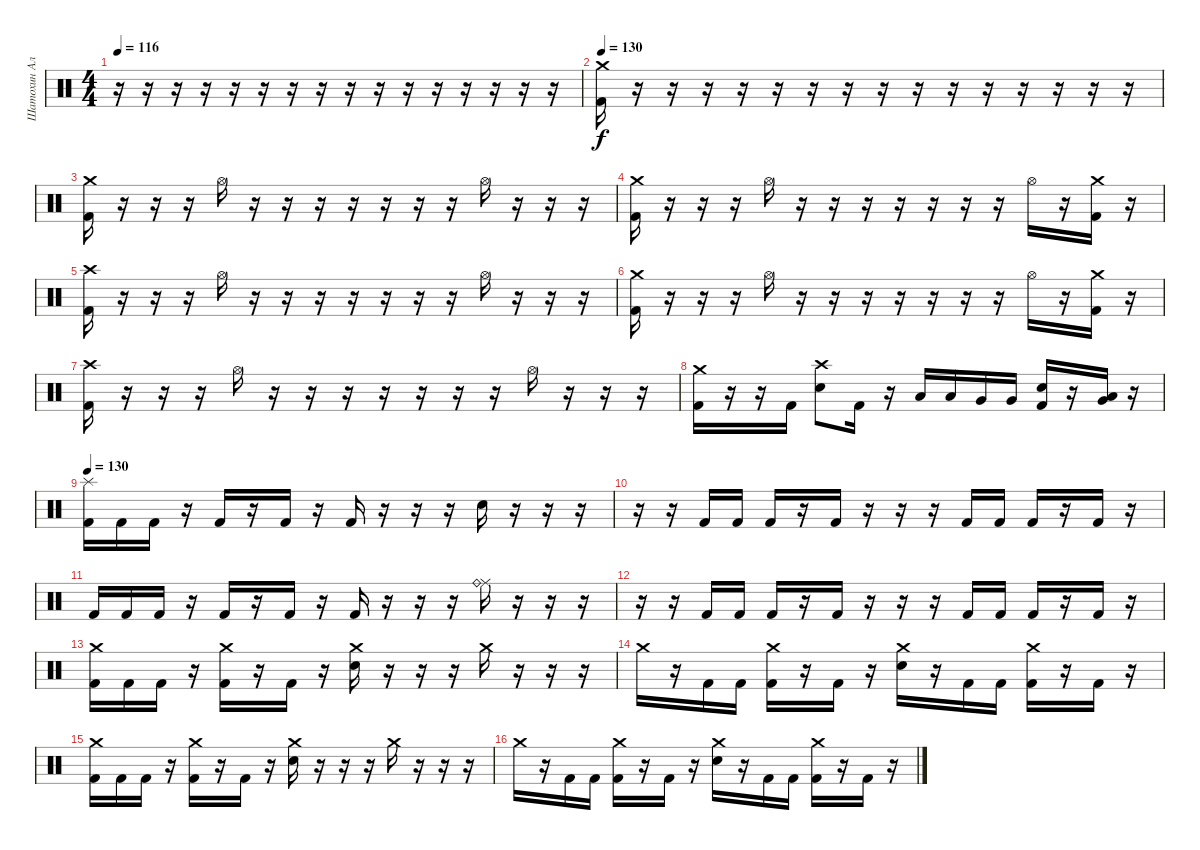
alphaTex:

\track ("Шатохин Алексей" "Шатохин Ал") {instrument percussion}
\staff {score}
\articulation defaults
\ts (4 4)
\tempo 116
\clef neutral
\ks c
r.16{dy f} r.16 r.16 r.16 r.16 r.16 r.16 r.16 r.16 r.16 r.16 r.16 r.16 r.16 r.16 r.16 |
\tempo 130
("Crash medium (hit)" "Kick (hit) 2").16 r.16 r.16 r.16 r.16 r.16 r.16 r.16 r.16 r.16 r.16 r.16 r.16 r.16 r.16 r.16 |
("Crash medium (hit)" "Kick (hit) 2").16 r.16 r.16 r.16 "Hi-Hat (open)".16 r.16 r.16 r.16 r.16 r.16 r.16 r.16 "Hi-Hat (open)".16 r.16 r.16 r.16 |
("Crash medium (hit)" "Kick (hit) 2").16 r.16 r.16 r.16 "Hi-Hat (open)".16 r.16 r.16 r.16 r.16 r.16 r.16 r.16 "Hi-Hat (open)".16 r.16 ("Crash medium (hit)" "Kick (hit) 2").16 r.16 |
("Crash high (hit)" "Kick (hit) 2").16 r.16 r.16 r.16 "Hi-Hat (open)".16 r.16 r.16 r.16 r.16 r.16 r.16 r.16 "Hi-Hat (open)".16 r.16 r.16 r.16 |
("Crash medium (hit)" "Kick (hit) 2").16 r.16 r.16 r.16 "Hi-Hat (open)".16 r.16 r.16 r.16 r.16 r.16 r.16 r.16 "Hi-Hat (open)".16 r.16 ("Crash medium (hit)" "Kick (hit) 2").16 r.16 |
("Crash high (hit)" "Kick (hit) 2").16 r.16 r.16 r.16 "Hi-Hat (open)".16 r.16 r.16 r.16 r.16 r.16 r.16 r.16 "Hi-Hat (open)".16 r.16 r.16 r.16 |
("Crash medium (hit)" "Kick (hit) 2").16 r.16 r.16 "Kick (hit) 2".16 ("Crash high (hit)" "Electric Snare (hit)").8 "Kick (hit) 2".16 r.16 "Low Tom (hit)".16 "Low Tom (hit)".16 "Very Low Tom (hit)".16 "Very Low Tom (hit)".16 ("Electric Snare (hit)" "Kick (hit) 2").16 r.16 ("Very Low Tom (hit)" "Low Floor Tom (hit)").16 r.16 |
\tempo 130
("Splash (hit)" "Kick (hit) 2").16 "Kick (hit) 2".16 "Kick (hit) 2".16 r.16 "Kick (hit) 2".16 r.16 "Kick (hit) 2".16 r.16 "Kick (hit) 2".16 r.16 r.16 r.16 "Electric Snare (hit)".16 r.16 r.16 r.16 |
r.16 r.16 "Kick (hit) 2".16 "Kick (hit) 2".16 "Kick (hit) 2".16 r.16 "Kick (hit) 2".16 r.16 r.16 r.16 "Kick (hit) 2".16 "Kick (hit) 2".16 "Kick (hit) 2".16 r.16 "Kick (hit) 2".16 r.16 |
"Kick (hit) 2".16 "Kick (hit) 2".16 "Kick (hit) 2".16 r.16 "Kick (hit) 2".16 r.16 "Kick (hit) 2".16 r.16 "Kick (hit) 2".16 r.16 r.16 r.16 ("Ride (middle)" "Ride (bell)").16 r.16 r.16 r.16 |
r.16 r.16 "Kick (hit) 2".16 "Kick (hit) 2".16 "Kick (hit) 2".16 r.16 "Kick (hit) 2".16 r.16 r.16 r.16 "Kick (hit) 2".16 "Kick (hit) 2".16 "Kick (hit) 2".16 r.16 "Kick (hit) 2".16 r.16 |
("Crash medium (hit)" "Kick (hit) 2").16 "Kick (hit) 2".16 "Kick (hit) 2".16 r.16 ("Crash medium (hit)" "Kick (hit) 2").16 r.16 "Kick (hit) 2".16 r.16 ("Crash medium (hit)" "Electric Snare (hit)").16 r.16 r.16 r.16 "Crash medium (hit)".16 r.16 r.16 r.16 |
"Crash medium (hit)".16 r.16 "Kick (hit) 2".16 "Kick (hit) 2".16 ("Crash medium (hit)" "Kick (hit) 2").16 r.16 "Kick (hit) 2".16 r.16 ("Crash medium (hit)" "Electric Snare (hit)").16 r.16 "Kick (hit) 2".16 "Kick (hit) 2".16 ("Crash medium (hit)" "Kick (hit) 2").16 r.16 "Kick (hit) 2".16 r.16 |
("Crash medium (hit)" "Kick (hit) 2").16 "Kick (hit) 2".16 "Kick (hit) 2".16 r.16 ("Crash medium (hit)" "Kick (hit) 2").16 r.16 "Kick (hit) 2".16 r.16 ("Crash medium (hit)" "Electric Snare (hit)").16 r.16 r.16 r.16 "Crash medium (hit)".16 r.16 r.16 r.16 |
"Crash medium (hit)".16 r.16 "Kick (hit) 2".16 "Kick (hit) 2".16 ("Crash medium (hit)" "Kick (hit) 2").16 r.16 "Kick (hit) 2".16 r.16 ("Crash medium (hit)" "Electric Snare (hit)").16 r.16 "Kick (hit) 2".16 "Kick (hit) 2".16 ("Crash medium (hit)" "Kick (hit) 2").16 r.16 "Kick (hit) 2".16 r.16
